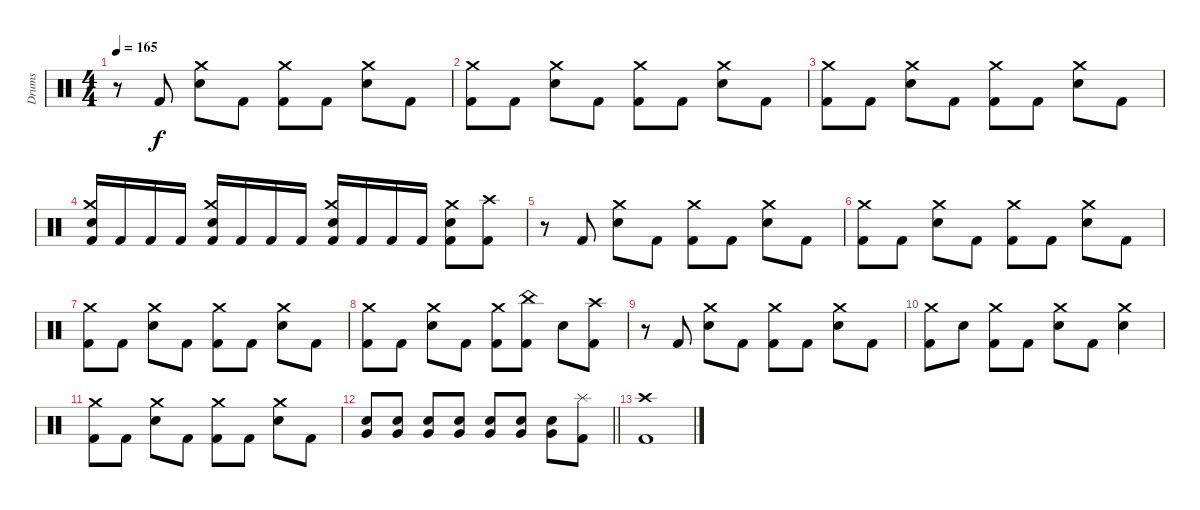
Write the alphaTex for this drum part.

\track ("Drums" "Drums") {instrument percussion}
\staff {score}
\articulation defaults
\ts (4 4)
\tempo 165
\clef neutral
\ks c
r.8{dy f} "Kick (hit) 2".8 ("Crash medium (hit)" "Electric Snare (hit)").8 "Kick (hit) 2".8 ("Crash medium (hit)" "Kick (hit) 2").8 "Kick (hit) 2".8 ("Crash medium (hit)" "Electric Snare (hit)").8 "Kick (hit) 2".8 |
("Crash medium (hit)" "Kick (hit) 2").8 "Kick (hit) 2".8 ("Crash medium (hit)" "Electric Snare (hit)").8 "Kick (hit) 2".8 ("Crash medium (hit)" "Kick (hit) 2").8 "Kick (hit) 2".8 ("Crash medium (hit)" "Electric Snare (hit)").8 "Kick (hit) 2".8 |
("Crash medium (hit)" "Kick (hit) 2").8 "Kick (hit) 2".8 ("Crash medium (hit)" "Electric Snare (hit)").8 "Kick (hit) 2".8 ("Crash medium (hit)" "Kick (hit) 2").8 "Kick (hit) 2".8 ("Crash medium (hit)" "Electric Snare (hit)").8 "Kick (hit) 2".8 |
("Crash medium (hit)" "Electric Snare (hit)" "Kick (hit) 2").16 "Kick (hit) 2".16 "Kick (hit) 2".16 "Kick (hit) 2".16 ("Crash medium (hit)" "Electric Snare (hit)" "Kick (hit) 2").16 "Kick (hit) 2".16 "Kick (hit) 2".16 "Kick (hit) 2".16 ("Crash medium (hit)" "Electric Snare (hit)" "Kick (hit) 2").16 "Kick (hit) 2".16 "Kick (hit) 2".16 "Kick (hit) 2".16 ("Crash medium (hit)" "Electric Snare (hit)" "Kick (hit) 2").8 ("Crash high (hit)" "Kick (hit) 2").8 |
r.8 "Kick (hit) 2".8 ("Crash medium (hit)" "Electric Snare (hit)").8 "Kick (hit) 2".8 ("Crash medium (hit)" "Kick (hit) 2").8 "Kick (hit) 2".8 ("Crash medium (hit)" "Electric Snare (hit)").8 "Kick (hit) 2".8 |
("Crash medium (hit)" "Kick (hit) 2").8 "Kick (hit) 2".8 ("Crash medium (hit)" "Electric Snare (hit)").8 "Kick (hit) 2".8 ("Crash medium (hit)" "Kick (hit) 2").8 "Kick (hit) 2".8 ("Crash medium (hit)" "Electric Snare (hit)").8 "Kick (hit) 2".8 |
("Crash medium (hit)" "Kick (hit) 2").8 "Kick (hit) 2".8 ("Crash medium (hit)" "Electric Snare (hit)").8 "Kick (hit) 2".8 ("Crash medium (hit)" "Kick (hit) 2").8 "Kick (hit) 2".8 ("Crash medium (hit)" "Electric Snare (hit)").8 "Kick (hit) 2".8 |
("Crash medium (hit)" "Kick (hit) 2").8 "Kick (hit) 2".8 ("Crash medium (hit)" "Electric Snare (hit)").8 "Kick (hit) 2".8 ("Crash medium (hit)" "Kick (hit) 2").8 ("China (hit)" "Kick (hit) 2").8 "Electric Snare (hit)".8 ("Crash high (hit)" "Kick (hit) 2").8 |
r.8 "Kick (hit) 2".8 ("Crash medium (hit)" "Electric Snare (hit)").8 "Kick (hit) 2".8 ("Crash medium (hit)" "Kick (hit) 2").8 "Kick (hit) 2".8 ("Crash medium (hit)" "Electric Snare (hit)").8 "Kick (hit) 2".8 |
("Crash medium (hit)" "Kick (hit) 2").8 "Electric Snare (hit)".8 ("Crash medium (hit)" "Kick (hit) 2").8 "Kick (hit) 2".8 ("Crash medium (hit)" "Electric Snare (hit)").8 "Kick (hit) 2".8 ("Crash medium (hit)" "Electric Snare (hit)").4 |
("Crash medium (hit)" "Kick (hit) 2").8 "Kick (hit) 2".8 ("Crash medium (hit)" "Electric Snare (hit)").8 "Kick (hit) 2".8 ("Crash medium (hit)" "Kick (hit) 2").8 "Kick (hit) 2".8 ("Crash medium (hit)" "Electric Snare (hit)").8 "Kick (hit) 2".8 |
\barLineRight lightlight
("Very Low Tom (hit)" "Electric Snare (hit)").8 ("Very Low Tom (hit)" "Electric Snare (hit)").8 ("Very Low Tom (hit)" "Electric Snare (hit)").8 ("Very Low Tom (hit)" "Electric Snare (hit)").8 ("Very Low Tom (hit)" "Electric Snare (hit)").8 ("Very Low Tom (hit)" "Electric Snare (hit)").8 ("Very Low Tom (hit)" "Electric Snare (hit)").8 ("Splash (hit)" "Kick (hit) 2").8 |
("Crash high (hit)" "Kick (hit) 2").1
